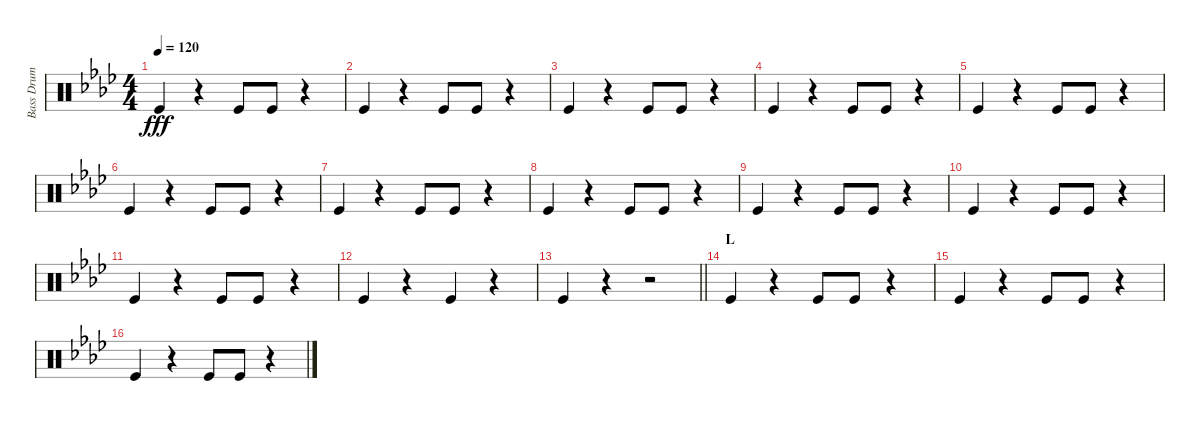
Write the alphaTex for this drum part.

\track ("Bass Drum" "Bass Drum") {instrument percussion}
\staff {score}
\articulation defaults
\ts (4 4)
\tempo 120
\clef neutral
\ks ab "Kick (hit)".4{dy fff}
r.4 "Kick (hit)".8 "Kick (hit)".8 r.4 |
"Kick (hit)".4 r.4 "Kick (hit)".8 "Kick (hit)".8 r.4 |
"Kick (hit)".4 r.4 "Kick (hit)".8 "Kick (hit)".8 r.4 |
"Kick (hit)".4 r.4 "Kick (hit)".8 "Kick (hit)".8 r.4 |
"Kick (hit)".4 r.4 "Kick (hit)".8 "Kick (hit)".8 r.4 |
"Kick (hit)".4 r.4 "Kick (hit)".8 "Kick (hit)".8 r.4 |
"Kick (hit)".4 r.4 "Kick (hit)".8 "Kick (hit)".8 r.4 |
"Kick (hit)".4 r.4 "Kick (hit)".8 "Kick (hit)".8 r.4 |
"Kick (hit)".4 r.4 "Kick (hit)".8 "Kick (hit)".8 r.4 |
"Kick (hit)".4 r.4 "Kick (hit)".8 "Kick (hit)".8 r.4 |
"Kick (hit)".4 r.4 "Kick (hit)".8 "Kick (hit)".8 r.4 |
"Kick (hit)".4 r.4 "Kick (hit)".4 r.4 |
\barLineRight lightlight "Kick (hit)".4
r.4 r.2 |
\section ("" "L")
"Kick (hit)".4 r.4 "Kick (hit)".8 "Kick (hit)".8 r.4 |
"Kick (hit)".4 r.4 "Kick (hit)".8 "Kick (hit)".8 r.4 |
"Kick (hit)".4 r.4 "Kick (hit)".8 "Kick (hit)".8 r.4
